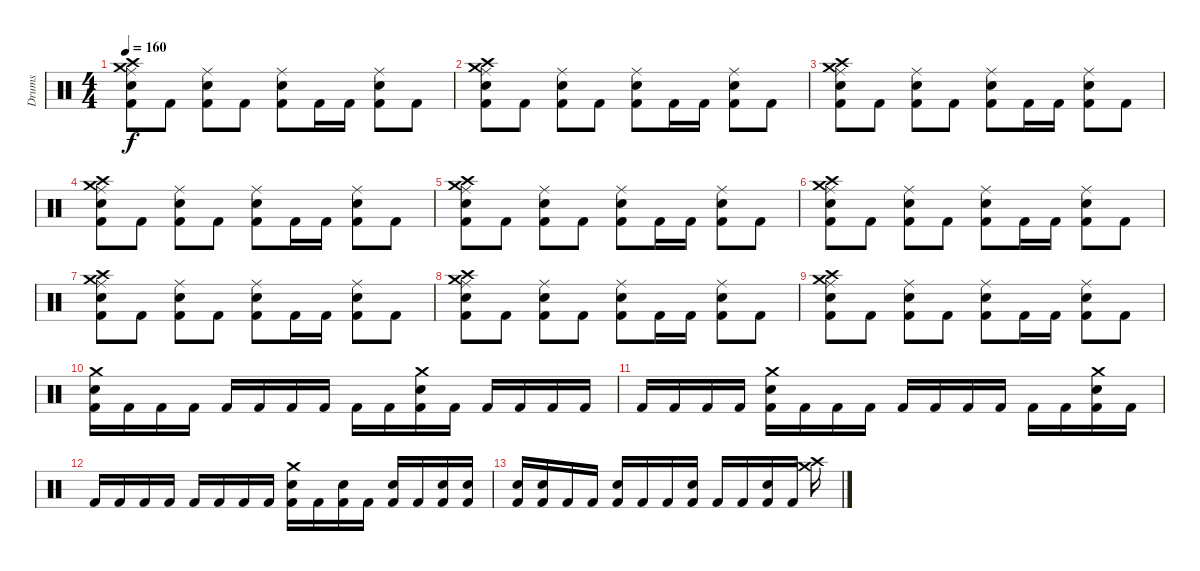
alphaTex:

\track ("Drums" "Drums") {instrument percussion}
\staff {score}
\articulation defaults
\ts (4 4)
\tempo 160
\clef neutral
\ks c
("Crash medium (hit)" "Crash high (hit)" "Ride (middle)" "Snare (hit) 2" "Kick (hit) 2").8{dy f} "Kick (hit) 2".8 ("Ride (middle)" "Snare (hit) 2" "Kick (hit) 2").8 "Kick (hit) 2".8 ("Ride (middle)" "Snare (hit) 2" "Kick (hit) 2").8 "Kick (hit) 2".16 "Kick (hit) 2".16 ("Ride (middle)" "Snare (hit) 2" "Kick (hit) 2").8 "Kick (hit) 2".8 |
("Crash medium (hit)" "Crash high (hit)" "Ride (middle)" "Snare (hit) 2" "Kick (hit) 2").8 "Kick (hit) 2".8 ("Ride (middle)" "Snare (hit) 2" "Kick (hit) 2").8 "Kick (hit) 2".8 ("Ride (middle)" "Snare (hit) 2" "Kick (hit) 2").8 "Kick (hit) 2".16 "Kick (hit) 2".16 ("Ride (middle)" "Snare (hit) 2" "Kick (hit) 2").8 "Kick (hit) 2".8 |
("Crash medium (hit)" "Crash high (hit)" "Ride (middle)" "Snare (hit) 2" "Kick (hit) 2").8 "Kick (hit) 2".8 ("Ride (middle)" "Snare (hit) 2" "Kick (hit) 2").8 "Kick (hit) 2".8 ("Ride (middle)" "Snare (hit) 2" "Kick (hit) 2").8 "Kick (hit) 2".16 "Kick (hit) 2".16 ("Ride (middle)" "Snare (hit) 2" "Kick (hit) 2").8 "Kick (hit) 2".8 |
("Crash medium (hit)" "Crash high (hit)" "Ride (middle)" "Snare (hit) 2" "Kick (hit) 2").8 "Kick (hit) 2".8 ("Ride (middle)" "Snare (hit) 2" "Kick (hit) 2").8 "Kick (hit) 2".8 ("Ride (middle)" "Snare (hit) 2" "Kick (hit) 2").8 "Kick (hit) 2".16 "Kick (hit) 2".16 ("Ride (middle)" "Snare (hit) 2" "Kick (hit) 2").8 "Kick (hit) 2".8 |
("Crash medium (hit)" "Crash high (hit)" "Ride (middle)" "Snare (hit) 2" "Kick (hit) 2").8 "Kick (hit) 2".8 ("Ride (middle)" "Snare (hit) 2" "Kick (hit) 2").8 "Kick (hit) 2".8 ("Ride (middle)" "Snare (hit) 2" "Kick (hit) 2").8 "Kick (hit) 2".16 "Kick (hit) 2".16 ("Ride (middle)" "Snare (hit) 2" "Kick (hit) 2").8 "Kick (hit) 2".8 |
("Crash medium (hit)" "Crash high (hit)" "Ride (middle)" "Snare (hit) 2" "Kick (hit) 2").8 "Kick (hit) 2".8 ("Ride (middle)" "Snare (hit) 2" "Kick (hit) 2").8 "Kick (hit) 2".8 ("Ride (middle)" "Snare (hit) 2" "Kick (hit) 2").8 "Kick (hit) 2".16 "Kick (hit) 2".16 ("Ride (middle)" "Snare (hit) 2" "Kick (hit) 2").8 "Kick (hit) 2".8 |
("Crash medium (hit)" "Crash high (hit)" "Ride (middle)" "Snare (hit) 2" "Kick (hit) 2").8 "Kick (hit) 2".8 ("Ride (middle)" "Snare (hit) 2" "Kick (hit) 2").8 "Kick (hit) 2".8 ("Ride (middle)" "Snare (hit) 2" "Kick (hit) 2").8 "Kick (hit) 2".16 "Kick (hit) 2".16 ("Ride (middle)" "Snare (hit) 2" "Kick (hit) 2").8 "Kick (hit) 2".8 |
("Crash medium (hit)" "Crash high (hit)" "Ride (middle)" "Snare (hit) 2" "Kick (hit) 2").8 "Kick (hit) 2".8 ("Ride (middle)" "Snare (hit) 2" "Kick (hit) 2").8 "Kick (hit) 2".8 ("Ride (middle)" "Snare (hit) 2" "Kick (hit) 2").8 "Kick (hit) 2".16 "Kick (hit) 2".16 ("Ride (middle)" "Snare (hit) 2" "Kick (hit) 2").8 "Kick (hit) 2".8 |
("Crash medium (hit)" "Crash high (hit)" "Ride (middle)" "Snare (hit) 2" "Kick (hit) 2").8 "Kick (hit) 2".8 ("Ride (middle)" "Snare (hit) 2" "Kick (hit) 2").8 "Kick (hit) 2".8 ("Ride (middle)" "Snare (hit) 2" "Kick (hit) 2").8 "Kick (hit) 2".16 "Kick (hit) 2".16 ("Ride (middle)" "Snare (hit) 2" "Kick (hit) 2").8 "Kick (hit) 2".8 |
("Crash medium (hit)" "Snare (hit) 2" "Kick (hit) 2").16 "Kick (hit) 2".16 "Kick (hit) 2".16 "Kick (hit) 2".16 "Kick (hit) 2".16 "Kick (hit) 2".16 "Kick (hit) 2".16 "Kick (hit) 2".16 "Kick (hit) 2".16 "Kick (hit) 2".16 ("Crash medium (hit)" "Snare (hit) 2" "Kick (hit) 2").16 "Kick (hit) 2".16 "Kick (hit) 2".16 "Kick (hit) 2".16 "Kick (hit) 2".16 "Kick (hit) 2".16 |
"Kick (hit) 2".16 "Kick (hit) 2".16 "Kick (hit) 2".16 "Kick (hit) 2".16 ("Crash medium (hit)" "Snare (hit) 2" "Kick (hit) 2").16 "Kick (hit) 2".16 "Kick (hit) 2".16 "Kick (hit) 2".16 "Kick (hit) 2".16 "Kick (hit) 2".16 "Kick (hit) 2".16 "Kick (hit) 2".16 "Kick (hit) 2".16 "Kick (hit) 2".16 ("Crash medium (hit)" "Snare (hit) 2" "Kick (hit) 2").16 "Kick (hit) 2".16 |
"Kick (hit) 2".16 "Kick (hit) 2".16 "Kick (hit) 2".16 "Kick (hit) 2".16 "Kick (hit) 2".16 "Kick (hit) 2".16 "Kick (hit) 2".16 "Kick (hit) 2".16 ("Crash medium (hit)" "Snare (hit) 2" "Kick (hit) 2").16 "Kick (hit) 2".16 ("Snare (hit) 2" "Kick (hit) 2").16 "Kick (hit) 2".16 ("Snare (hit) 2" "Kick (hit) 2").16 "Kick (hit) 2".16 ("Snare (hit) 2" "Kick (hit) 2").16 ("Snare (hit) 2" "Kick (hit) 2").16 |
("Snare (hit) 2" "Kick (hit) 2").16 ("Snare (hit) 2" "Kick (hit) 2").16 "Kick (hit) 2".16 "Kick (hit) 2".16 ("Snare (hit) 2" "Kick (hit) 2").16 "Kick (hit) 2".16 "Kick (hit) 2".16 ("Snare (hit) 2" "Kick (hit) 2").16 "Kick (hit) 2".16 "Kick (hit) 2".16 ("Snare (hit) 2" "Kick (hit) 2").16 "Kick (hit) 2".16 ("Crash high (hit)" "Crash medium (hit)").16
